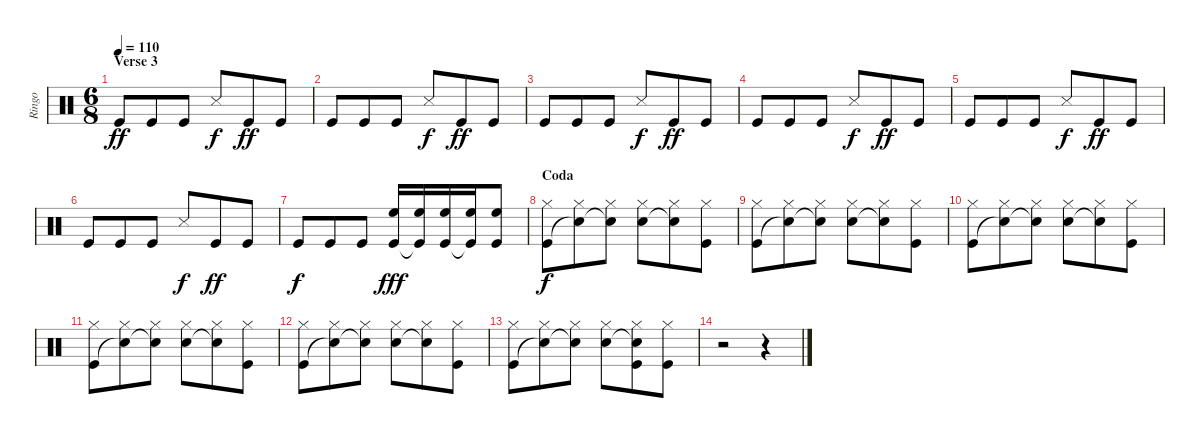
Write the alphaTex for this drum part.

\track ("Ringo" "Ringo") {instrument percussion}
\staff {score}
\articulation defaults
\ts (6 8)
\section ("" "Verse 3")
\tempo 110
\clef neutral
\ks c "Kick (hit)".8{dy ff} "Kick (hit)".8 "Kick (hit)".8 "Snare (side stick) 3".8{dy f} "Kick (hit)".8{dy ff} "Kick (hit)".8
|
"Kick (hit)".8 "Kick (hit)".8 "Kick (hit)".8 "Snare (side stick) 3".8{dy f} "Kick (hit)".8{dy ff} "Kick (hit)".8 |
"Kick (hit)".8 "Kick (hit)".8 "Kick (hit)".8 "Snare (side stick) 3".8{dy f} "Kick (hit)".8{dy ff} "Kick (hit)".8 |
"Kick (hit)".8 "Kick (hit)".8 "Kick (hit)".8 "Snare (side stick) 3".8{dy f} "Kick (hit)".8{dy ff} "Kick (hit)".8 |
"Kick (hit)".8 "Kick (hit)".8 "Kick (hit)".8 "Snare (side stick) 3".8{dy f} "Kick (hit)".8{dy ff} "Kick (hit)".8 |
"Kick (hit)".8 "Kick (hit)".8 "Kick (hit)".8 "Snare (side stick) 3".8{dy f} "Kick (hit)".8{dy ff} "Kick (hit)".8 |
"Kick (hit)".8{dy f} "Kick (hit)".8 "Kick (hit)".8 ("High Floor Tom (hit)" "Kick (hit)").16{dy fff} ("High Floor Tom (hit)" "Kick (hit)"{t}).16 ("High Floor Tom (hit)" "Kick (hit)").16 ("High Floor Tom (hit)" "Kick (hit)"{t}).16 ("High Floor Tom (hit)" "Kick (hit)").8 |
\section ("" "Coda")
("Hi-Hat (closed)" "Kick (hit)").8{dy f} ("Hi-Hat (closed)" "Snare (hit)"{t}).8 ("Hi-Hat (closed)" "Snare (hit)"{t}).8 ("Hi-Hat (closed)" "Snare (hit) 2").8 ("Hi-Hat (closed)" "Snare (hit)"{t}).8 ("Hi-Hat (closed)" "Kick (hit)").8 |
("Hi-Hat (closed)" "Kick (hit)").8 ("Hi-Hat (closed)" "Snare (hit)"{t}).8 ("Hi-Hat (closed)" "Snare (hit)"{t}).8 ("Hi-Hat (closed)" "Snare (hit) 2").8 ("Hi-Hat (closed)" "Snare (hit)"{t}).8 ("Hi-Hat (closed)" "Kick (hit)").8 |
("Hi-Hat (closed)" "Kick (hit)").8 ("Hi-Hat (closed)" "Snare (hit)"{t}).8 ("Hi-Hat (closed)" "Snare (hit)"{t}).8 ("Hi-Hat (closed)" "Snare (hit) 2").8 ("Hi-Hat (closed)" "Snare (hit)"{t}).8 ("Hi-Hat (closed)" "Kick (hit)").8 |
("Hi-Hat (closed)" "Kick (hit)").8 ("Hi-Hat (closed)" "Snare (hit)"{t}).8 ("Hi-Hat (closed)" "Snare (hit)"{t}).8 ("Hi-Hat (closed)" "Snare (hit) 2").8 ("Hi-Hat (closed)" "Snare (hit)"{t}).8 ("Hi-Hat (closed)" "Kick (hit)").8 |
("Hi-Hat (closed)" "Kick (hit)").8 ("Hi-Hat (closed)" "Snare (hit)"{t}).8 ("Hi-Hat (closed)" "Snare (hit)"{t}).8 ("Hi-Hat (closed)" "Snare (hit) 2").8 ("Hi-Hat (closed)" "Snare (hit)"{t}).8 ("Hi-Hat (closed)" "Kick (hit)").8 |
("Hi-Hat (closed)" "Kick (hit)").8 ("Hi-Hat (closed)" "Snare (hit)"{t}).8 ("Hi-Hat (closed)" "Snare (hit)"{t}).8 ("Hi-Hat (closed)" "Snare (hit) 2").8 ("Hi-Hat (closed)" "Snare (hit)"{t} "Kick (hit)").8 ("Hi-Hat (closed)" "Kick (hit)").8 |
r.2 r.4
